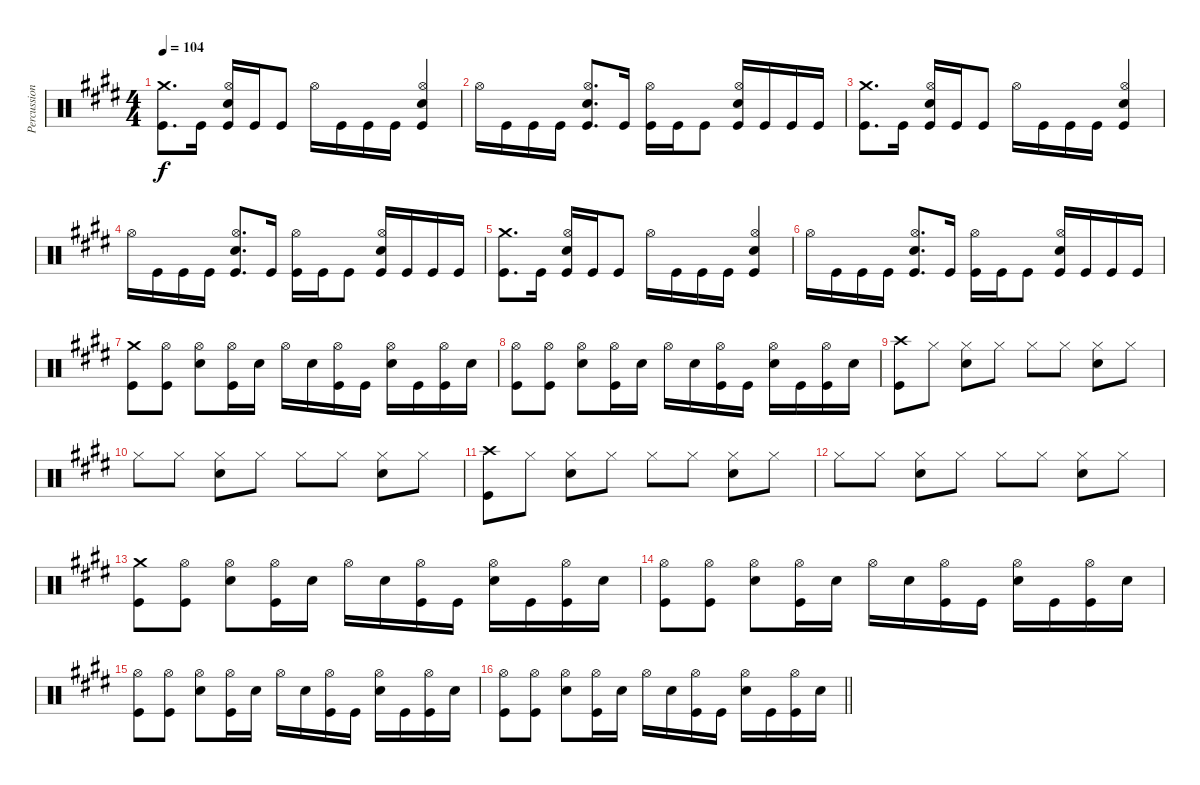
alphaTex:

\track ("Percussion" "Percussion") {instrument percussion}
\staff {score}
\articulation defaults
\ts (4 4)
\tempo 104
\clef neutral
\ks e
("Crash medium (hit)" "Kick (hit)").8{d dy f} "Kick (hit)".16 ("Hi-Hat (open)" "Electric Snare (hit)" "Kick (hit)").16 "Kick (hit)".16 "Kick (hit)".8 "Hi-Hat (open)".16 "Kick (hit)".16 "Kick (hit)".16 "Kick (hit)".16 ("Hi-Hat (open)" "Electric Snare (hit)" "Kick (hit)").4 |
"Hi-Hat (open)".16 "Kick (hit)".16 "Kick (hit)".16 "Kick (hit)".16 ("Hi-Hat (open)" "Electric Snare (hit)" "Kick (hit)").8{d} "Kick (hit)".16 ("Hi-Hat (open)" "Kick (hit)").16 "Kick (hit)".16 "Kick (hit)".8 ("Hi-Hat (open)" "Electric Snare (hit)" "Kick (hit)").16 "Kick (hit)".16 "Kick (hit)".16 "Kick (hit)".16 |
("Crash medium (hit)" "Kick (hit)").8{d} "Kick (hit)".16 ("Hi-Hat (open)" "Electric Snare (hit)" "Kick (hit)").16 "Kick (hit)".16 "Kick (hit)".8 "Hi-Hat (open)".16 "Kick (hit)".16 "Kick (hit)".16 "Kick (hit)".16 ("Hi-Hat (open)" "Electric Snare (hit)" "Kick (hit)").4 |
"Hi-Hat (open)".16 "Kick (hit)".16 "Kick (hit)".16 "Kick (hit)".16 ("Hi-Hat (open)" "Electric Snare (hit)" "Kick (hit)").8{d} "Kick (hit)".16 ("Hi-Hat (open)" "Kick (hit)").16 "Kick (hit)".16 "Kick (hit)".8 ("Hi-Hat (open)" "Electric Snare (hit)" "Kick (hit)").16 "Kick (hit)".16 "Kick (hit)".16 "Kick (hit)".16 |
("Crash medium (hit)" "Kick (hit)").8{d} "Kick (hit)".16 ("Hi-Hat (open)" "Electric Snare (hit)" "Kick (hit)").16 "Kick (hit)".16 "Kick (hit)".8 "Hi-Hat (open)".16 "Kick (hit)".16 "Kick (hit)".16 "Kick (hit)".16 ("Hi-Hat (open)" "Electric Snare (hit)" "Kick (hit)").4 |
"Hi-Hat (open)".16 "Kick (hit)".16 "Kick (hit)".16 "Kick (hit)".16 ("Hi-Hat (open)" "Electric Snare (hit)" "Kick (hit)").8{d} "Kick (hit)".16 ("Hi-Hat (open)" "Kick (hit)").16 "Kick (hit)".16 "Kick (hit)".8 ("Hi-Hat (open)" "Electric Snare (hit)" "Kick (hit)").16 "Kick (hit)".16 "Kick (hit)".16 "Kick (hit)".16 |
("Crash medium (hit)" "Kick (hit)").8 ("Hi-Hat (open)" "Kick (hit)").8 ("Hi-Hat (open)" "Electric Snare (hit)").8 ("Hi-Hat (open)" "Kick (hit)").16 "Electric Snare (hit)".16 "Hi-Hat (open)".16 "Electric Snare (hit)".16 ("Hi-Hat (open)" "Kick (hit)").16 "Kick (hit)".16 ("Hi-Hat (open)" "Electric Snare (hit)").16 "Kick (hit)".16 ("Hi-Hat (open)" "Kick (hit)").16 "Electric Snare (hit)".16 |
("Hi-Hat (open)" "Kick (hit)").8 ("Hi-Hat (open)" "Kick (hit)").8 ("Hi-Hat (open)" "Electric Snare (hit)").8 ("Hi-Hat (open)" "Kick (hit)").16 "Electric Snare (hit)".16 "Hi-Hat (open)".16 "Electric Snare (hit)".16 ("Hi-Hat (open)" "Kick (hit)").16 "Kick (hit)".16 ("Hi-Hat (open)" "Electric Snare (hit)").16 "Kick (hit)".16 ("Hi-Hat (open)" "Kick (hit)").16 "Electric Snare (hit)".16 |
("Crash high (hit)" "Kick (hit)").8 "Hi-Hat (closed)".8 ("Hi-Hat (closed)" "Electric Snare (hit)").8 "Hi-Hat (closed)".8 "Hi-Hat (closed)".8 "Hi-Hat (closed)".8 ("Hi-Hat (closed)" "Electric Snare (hit)").8 "Hi-Hat (closed)".8 |
"Hi-Hat (closed)".8 "Hi-Hat (closed)".8 ("Hi-Hat (closed)" "Electric Snare (hit)").8 "Hi-Hat (closed)".8 "Hi-Hat (closed)".8 "Hi-Hat (closed)".8 ("Hi-Hat (closed)" "Electric Snare (hit)").8 "Hi-Hat (closed)".8 |
("Crash high (hit)" "Kick (hit)").8 "Hi-Hat (closed)".8 ("Hi-Hat (closed)" "Electric Snare (hit)").8 "Hi-Hat (closed)".8 "Hi-Hat (closed)".8 "Hi-Hat (closed)".8 ("Hi-Hat (closed)" "Electric Snare (hit)").8 "Hi-Hat (closed)".8 |
"Hi-Hat (closed)".8 "Hi-Hat (closed)".8 ("Hi-Hat (closed)" "Electric Snare (hit)").8 "Hi-Hat (closed)".8 "Hi-Hat (closed)".8 "Hi-Hat (closed)".8 ("Hi-Hat (closed)" "Electric Snare (hit)").8 "Hi-Hat (closed)".8 |
("Crash medium (hit)" "Kick (hit)").8 ("Hi-Hat (open)" "Kick (hit)").8 ("Hi-Hat (open)" "Electric Snare (hit)").8 ("Hi-Hat (open)" "Kick (hit)").16 "Electric Snare (hit)".16 "Hi-Hat (open)".16 "Electric Snare (hit)".16 ("Hi-Hat (open)" "Kick (hit)").16 "Kick (hit)".16 ("Hi-Hat (open)" "Electric Snare (hit)").16 "Kick (hit)".16 ("Hi-Hat (open)" "Kick (hit)").16 "Electric Snare (hit)".16 |
("Hi-Hat (open)" "Kick (hit)").8 ("Hi-Hat (open)" "Kick (hit)").8 ("Hi-Hat (open)" "Electric Snare (hit)").8 ("Hi-Hat (open)" "Kick (hit)").16 "Electric Snare (hit)".16 "Hi-Hat (open)".16 "Electric Snare (hit)".16 ("Hi-Hat (open)" "Kick (hit)").16 "Kick (hit)".16 ("Hi-Hat (open)" "Electric Snare (hit)").16 "Kick (hit)".16 ("Hi-Hat (open)" "Kick (hit)").16 "Electric Snare (hit)".16 |
("Hi-Hat (open)" "Kick (hit)").8 ("Hi-Hat (open)" "Kick (hit)").8 ("Hi-Hat (open)" "Electric Snare (hit)").8 ("Hi-Hat (open)" "Kick (hit)").16 "Electric Snare (hit)".16 "Hi-Hat (open)".16 "Electric Snare (hit)".16 ("Hi-Hat (open)" "Kick (hit)").16 "Kick (hit)".16 ("Hi-Hat (open)" "Electric Snare (hit)").16 "Kick (hit)".16 ("Hi-Hat (open)" "Kick (hit)").16 "Electric Snare (hit)".16 |
\barLineRight lightlight
("Hi-Hat (open)" "Kick (hit)").8 ("Hi-Hat (open)" "Kick (hit)").8 ("Hi-Hat (open)" "Electric Snare (hit)").8 ("Hi-Hat (open)" "Kick (hit)").16 "Electric Snare (hit)".16 "Hi-Hat (open)".16 "Electric Snare (hit)".16 ("Hi-Hat (open)" "Kick (hit)").16 "Kick (hit)".16 ("Hi-Hat (open)" "Electric Snare (hit)").16 "Kick (hit)".16 ("Hi-Hat (open)" "Kick (hit)").16 "Electric Snare (hit)".16
